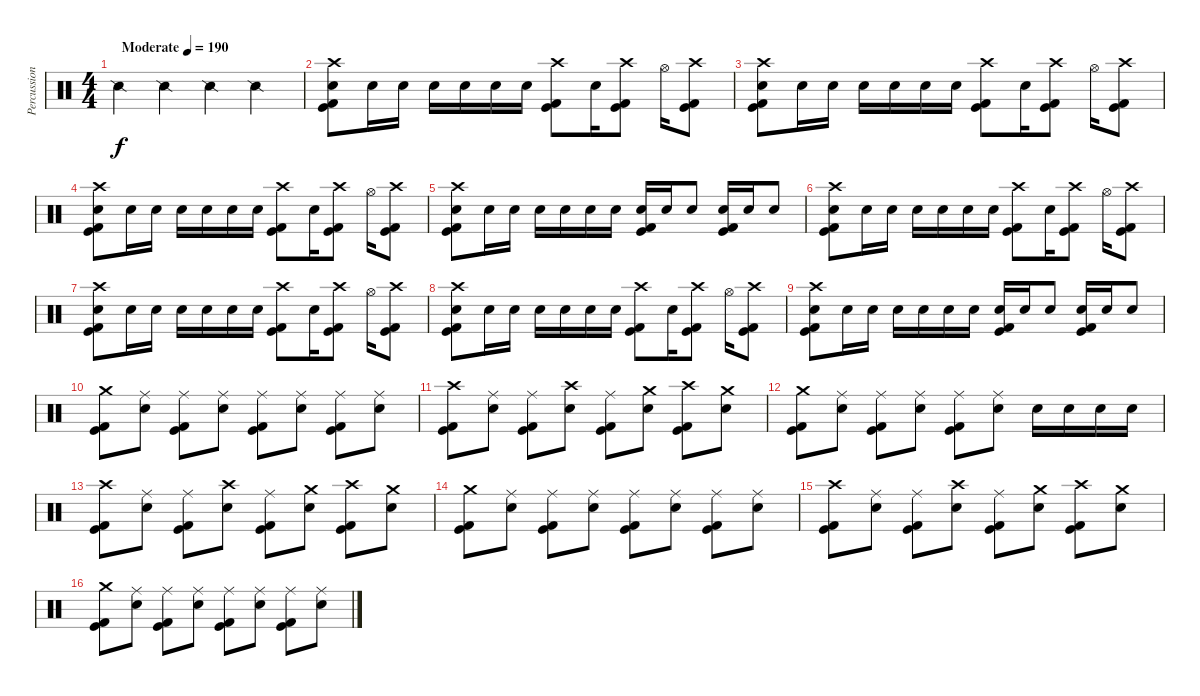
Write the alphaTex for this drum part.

\track ("Percussion" "Percussion") {instrument percussion}
\staff {score}
\articulation defaults
\ts (4 4)
\tempo (190 "Moderate")
\clef neutral
\ks c "Snare (side stick) 2".4{dy f} "Snare (side stick) 2".4 "Snare (side stick) 2".4 "Snare (side stick) 2".4
|
("Crash high (hit)" "Electric Snare (hit)" "Kick (hit)" "Kick (hit) 2").8 "Electric Snare (hit)".16 "Electric Snare (hit)".16 "Electric Snare (hit)".16 "Electric Snare (hit)".16 "Electric Snare (hit)".16 "Electric Snare (hit)".16 ("Crash high (hit)" "Kick (hit)" "Kick (hit) 2").8 "Electric Snare (hit)".16 ("Crash high (hit)" "Kick (hit)" "Kick (hit) 2").8 "Hi-Hat (open)".16 ("Crash high (hit)" "Kick (hit)" "Kick (hit) 2").8 |
("Crash high (hit)" "Electric Snare (hit)" "Kick (hit)" "Kick (hit) 2").8 "Electric Snare (hit)".16 "Electric Snare (hit)".16 "Electric Snare (hit)".16 "Electric Snare (hit)".16 "Electric Snare (hit)".16 "Electric Snare (hit)".16 ("Crash high (hit)" "Kick (hit)" "Kick (hit) 2").8 "Electric Snare (hit)".16 ("Crash high (hit)" "Kick (hit)" "Kick (hit) 2").8 "Hi-Hat (open)".16 ("Crash high (hit)" "Kick (hit)" "Kick (hit) 2").8 |
("Crash high (hit)" "Electric Snare (hit)" "Kick (hit)" "Kick (hit) 2").8 "Electric Snare (hit)".16 "Electric Snare (hit)".16 "Electric Snare (hit)".16 "Electric Snare (hit)".16 "Electric Snare (hit)".16 "Electric Snare (hit)".16 ("Crash high (hit)" "Kick (hit)" "Kick (hit) 2").8 "Electric Snare (hit)".16 ("Crash high (hit)" "Kick (hit)" "Kick (hit) 2").8 "Hi-Hat (open)".16 ("Crash high (hit)" "Kick (hit)" "Kick (hit) 2").8 |
("Crash high (hit)" "Electric Snare (hit)" "Kick (hit)" "Kick (hit) 2").8 "Electric Snare (hit)".16 "Electric Snare (hit)".16 "Electric Snare (hit)".16 "Electric Snare (hit)".16 "Electric Snare (hit)".16 "Electric Snare (hit)".16 ("Electric Snare (hit)" "Kick (hit)" "Kick (hit) 2").16 "Electric Snare (hit)".16 "Electric Snare (hit)".8 ("Electric Snare (hit)" "Kick (hit)" "Kick (hit) 2").16 "Electric Snare (hit)".16 "Electric Snare (hit)".8 |
("Crash high (hit)" "Electric Snare (hit)" "Kick (hit)" "Kick (hit) 2").8 "Electric Snare (hit)".16 "Electric Snare (hit)".16 "Electric Snare (hit)".16 "Electric Snare (hit)".16 "Electric Snare (hit)".16 "Electric Snare (hit)".16 ("Crash high (hit)" "Kick (hit)" "Kick (hit) 2").8 "Electric Snare (hit)".16 ("Crash high (hit)" "Kick (hit)" "Kick (hit) 2").8 "Hi-Hat (open)".16 ("Crash high (hit)" "Kick (hit)" "Kick (hit) 2").8 |
("Crash high (hit)" "Electric Snare (hit)" "Kick (hit)" "Kick (hit) 2").8 "Electric Snare (hit)".16 "Electric Snare (hit)".16 "Electric Snare (hit)".16 "Electric Snare (hit)".16 "Electric Snare (hit)".16 "Electric Snare (hit)".16 ("Crash high (hit)" "Kick (hit)" "Kick (hit) 2").8 "Electric Snare (hit)".16 ("Crash high (hit)" "Kick (hit)" "Kick (hit) 2").8 "Hi-Hat (open)".16 ("Crash high (hit)" "Kick (hit)" "Kick (hit) 2").8 |
("Crash high (hit)" "Electric Snare (hit)" "Kick (hit)" "Kick (hit) 2").8 "Electric Snare (hit)".16 "Electric Snare (hit)".16 "Electric Snare (hit)".16 "Electric Snare (hit)".16 "Electric Snare (hit)".16 "Electric Snare (hit)".16 ("Crash high (hit)" "Kick (hit)" "Kick (hit) 2").8 "Electric Snare (hit)".16 ("Crash high (hit)" "Kick (hit)" "Kick (hit) 2").8 "Hi-Hat (open)".16 ("Crash high (hit)" "Kick (hit)" "Kick (hit) 2").8 |
("Crash high (hit)" "Electric Snare (hit)" "Kick (hit)" "Kick (hit) 2").8 "Electric Snare (hit)".16 "Electric Snare (hit)".16 "Electric Snare (hit)".16 "Electric Snare (hit)".16 "Electric Snare (hit)".16 "Electric Snare (hit)".16 ("Electric Snare (hit)" "Kick (hit)" "Kick (hit) 2").16 "Electric Snare (hit)".16 "Electric Snare (hit)".8 ("Electric Snare (hit)" "Kick (hit)" "Kick (hit) 2").16 "Electric Snare (hit)".16 "Electric Snare (hit)".8 |
("Crash medium (hit)" "Kick (hit)" "Kick (hit) 2").8 ("Ride (middle)" "Electric Snare (hit)").8 ("Ride (middle)" "Kick (hit)" "Kick (hit) 2").8 ("Ride (middle)" "Electric Snare (hit)").8 ("Ride (middle)" "Kick (hit)" "Kick (hit) 2").8 ("Ride (middle)" "Electric Snare (hit)").8 ("Ride (middle)" "Kick (hit)" "Kick (hit) 2").8 ("Ride (middle)" "Electric Snare (hit)").8 |
("Crash high (hit)" "Kick (hit)" "Kick (hit) 2").8 ("Ride (middle)" "Electric Snare (hit)").8 ("Ride (middle)" "Kick (hit)" "Kick (hit) 2").8 ("Crash high (hit)" "Electric Snare (hit)").8 ("Ride (middle)" "Kick (hit)" "Kick (hit) 2").8 ("Crash medium (hit)" "Electric Snare (hit)").8 ("Crash high (hit)" "Kick (hit)" "Kick (hit) 2").8 ("Crash medium (hit)" "Electric Snare (hit)").8 |
("Crash medium (hit)" "Kick (hit)" "Kick (hit) 2").8 ("Ride (middle)" "Electric Snare (hit)").8 ("Ride (middle)" "Kick (hit)" "Kick (hit) 2").8 ("Ride (middle)" "Electric Snare (hit)").8 ("Ride (middle)" "Kick (hit)" "Kick (hit) 2").8 ("Ride (middle)" "Electric Snare (hit)").8 "Electric Snare (hit)".16 "Electric Snare (hit)".16 "Electric Snare (hit)".16 "Electric Snare (hit)".16 |
("Crash high (hit)" "Kick (hit)" "Kick (hit) 2").8 ("Ride (middle)" "Electric Snare (hit)").8 ("Ride (middle)" "Kick (hit)" "Kick (hit) 2").8 ("Crash high (hit)" "Electric Snare (hit)").8 ("Ride (middle)" "Kick (hit)" "Kick (hit) 2").8 ("Crash medium (hit)" "Electric Snare (hit)").8 ("Crash high (hit)" "Kick (hit)" "Kick (hit) 2").8 ("Crash medium (hit)" "Electric Snare (hit)").8 |
("Crash medium (hit)" "Kick (hit)" "Kick (hit) 2").8 ("Ride (middle)" "Electric Snare (hit)").8 ("Ride (middle)" "Kick (hit)" "Kick (hit) 2").8 ("Ride (middle)" "Electric Snare (hit)").8 ("Ride (middle)" "Kick (hit)" "Kick (hit) 2").8 ("Ride (middle)" "Electric Snare (hit)").8 ("Ride (middle)" "Kick (hit)" "Kick (hit) 2").8 ("Ride (middle)" "Electric Snare (hit)").8 |
("Crash high (hit)" "Kick (hit)" "Kick (hit) 2").8 ("Ride (middle)" "Electric Snare (hit)").8 ("Ride (middle)" "Kick (hit)" "Kick (hit) 2").8 ("Crash high (hit)" "Electric Snare (hit)").8 ("Ride (middle)" "Kick (hit)" "Kick (hit) 2").8 ("Crash medium (hit)" "Electric Snare (hit)").8 ("Crash high (hit)" "Kick (hit)" "Kick (hit) 2").8 ("Crash medium (hit)" "Electric Snare (hit)").8 |
("Crash medium (hit)" "Kick (hit)" "Kick (hit) 2").8 ("Ride (middle)" "Electric Snare (hit)").8 ("Ride (middle)" "Kick (hit)" "Kick (hit) 2").8 ("Ride (middle)" "Electric Snare (hit)").8 ("Ride (middle)" "Kick (hit)" "Kick (hit) 2").8 ("Ride (middle)" "Electric Snare (hit)").8 ("Ride (middle)" "Kick (hit)" "Kick (hit) 2").8 ("Ride (middle)" "Electric Snare (hit)").8
